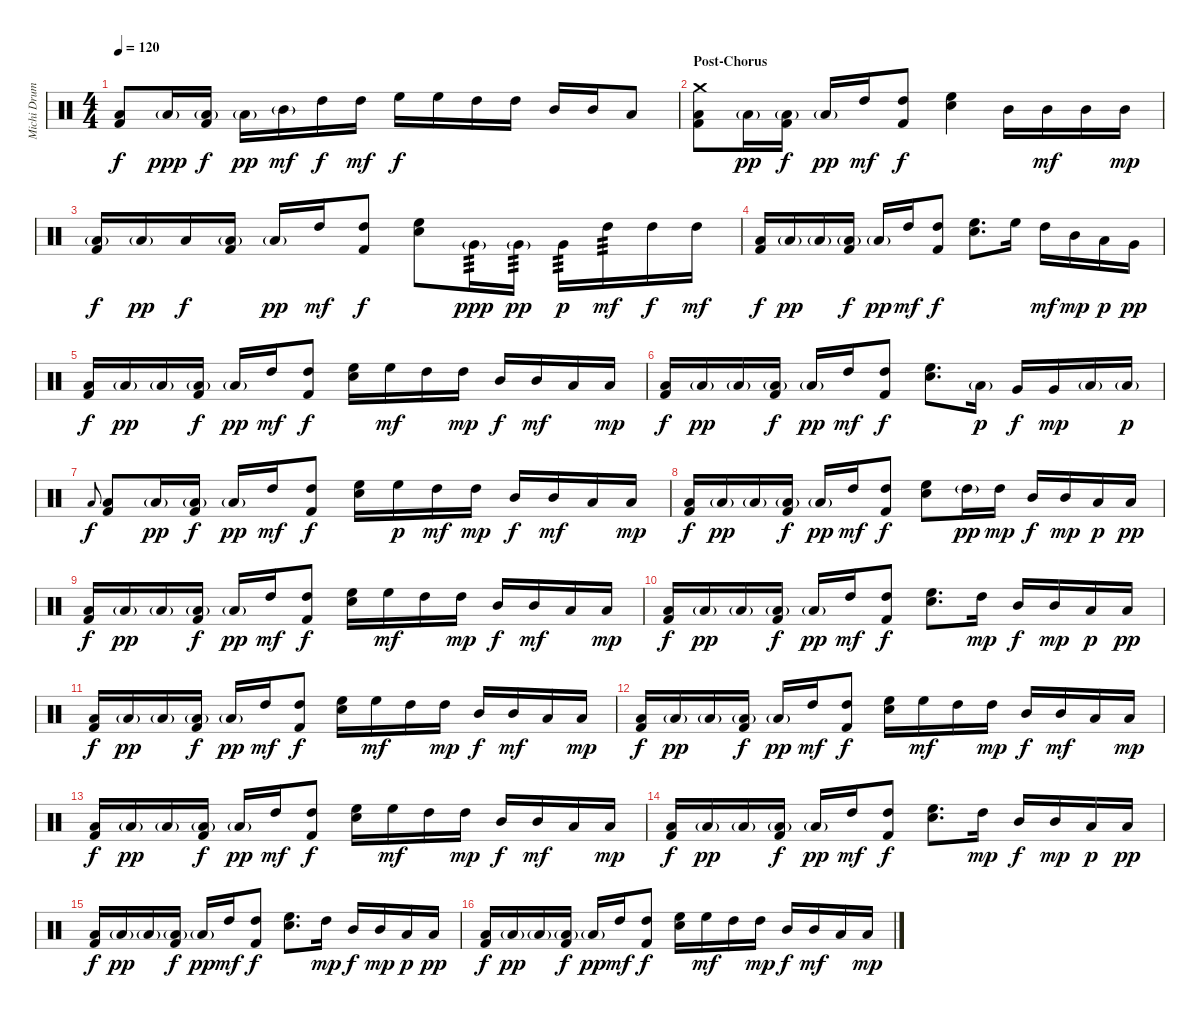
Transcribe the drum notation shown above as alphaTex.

\track ("Michi Drums" "Michi Drum") {instrument percussion}
\staff {score}
\articulation defaults
\ts (4 4)
\tempo 120
\clef neutral
\ks c
("Low Floor Tom (hit)" "Kick (hit) 2").8{dy f} "Low Floor Tom (hit)"{g}.16{dy ppp} ("Low Tom (hit)"{g} "Kick (hit) 2").16{dy f} "Low Tom (hit)"{g}.16{dy pp} "Mid Tom (hit)"{g}.16{dy mf} "High Tom (hit)".16{dy f} "High Tom (hit)".16{dy mf} "High Floor Tom (hit)".16{dy f} "High Floor Tom (hit)".16 "High Tom (hit)".16 "High Tom (hit)".16 "Mid Tom (hit)".16 "Mid Tom (hit)".16 "Low Tom (hit)".8 |
\section ("" "Post-Chorus")
("Crash medium (hit)" "Low Floor Tom (hit)" "Kick (hit) 2").8 "Low Floor Tom (hit)"{g}.16{dy pp} ("Low Tom (hit)"{g} "Kick (hit) 2").16{dy f} "Low Tom (hit)"{g}.16{dy pp} "High Tom (hit)".16{dy mf} ("High Tom (hit)" "Kick (hit) 2").8{dy f} ("High Floor Tom (hit)" "Electric Snare (hit)").4 "Mid Tom (hit)".16 "Mid Tom (hit)".16{dy mf} "Mid Tom (hit)".16 "Mid Tom (hit)".16{dy mp} |
("Low Floor Tom (hit)"{g} "Kick (hit) 2").16{dy f} "Low Floor Tom (hit)"{g}.16{dy pp} "Low Floor Tom (hit)".16{dy f} ("Low Tom (hit)"{g} "Kick (hit) 2").16 "Low Tom (hit)"{g}.16{dy pp} "High Tom (hit)".16{dy mf} ("High Tom (hit)" "Kick (hit) 2").8{dy f} ("High Floor Tom (hit)" "Electric Snare (hit)").8 "Very Low Tom (hit)"{g}.16{tp 3 dy ppp} "Very Low Tom (hit)"{g}.16{tp 3 dy pp} "Very Low Tom (hit)".16{tp 3 dy p} "High Tom (hit)".16{tp 3 dy mf} "High Tom (hit)".16{dy f} "High Tom (hit)".16{dy mf} |
("Low Floor Tom (hit)" "Kick (hit) 2").16{dy f} "Low Floor Tom (hit)"{g}.16{dy pp} "Low Floor Tom (hit)"{g}.16 ("Low Tom (hit)"{g} "Kick (hit) 2").16{dy f} "Low Tom (hit)"{g}.16{dy pp} "High Tom (hit)".16{dy mf} ("High Tom (hit)" "Kick (hit) 2").8{dy f} ("High Floor Tom (hit)" "Electric Snare (hit)").8{d} "High Floor Tom (hit)".16 "High Tom (hit)".16{dy mf} "Mid Tom (hit)".16{dy mp} "Low Tom (hit)".16{dy p} "Very Low Tom (hit)".16{dy pp} |
("Low Floor Tom (hit)" "Kick (hit) 2").16{dy f} "Low Floor Tom (hit)"{g}.16{dy pp} "Low Floor Tom (hit)"{g}.16 ("Low Tom (hit)"{g} "Kick (hit) 2").16{dy f} "Low Tom (hit)"{g}.16{dy pp} "High Tom (hit)".16{dy mf} ("High Tom (hit)" "Kick (hit) 2").8{dy f} ("High Floor Tom (hit)" "Electric Snare (hit)").16 "High Floor Tom (hit)".16{dy mf} "High Tom (hit)".16 "High Tom (hit)".16{dy mp} "Mid Tom (hit)".16{dy f} "Mid Tom (hit)".16{dy mf} "Low Tom (hit)".16 "Low Tom (hit)".16{dy mp} |
("Low Floor Tom (hit)" "Kick (hit) 2").16{dy f} "Low Floor Tom (hit)"{g}.16{dy pp} "Low Floor Tom (hit)"{g}.16 ("Low Tom (hit)"{g} "Kick (hit) 2").16{dy f} "Low Tom (hit)"{g}.16{dy pp} "High Tom (hit)".16{dy mf} ("High Tom (hit)" "Kick (hit) 2").8{dy f} ("High Floor Tom (hit)" "Electric Snare (hit)").8{d} "Low Tom (hit)"{g}.16{dy p} "Very Low Tom (hit)".16{dy f} "Very Low Tom (hit)".16{dy mp} "Low Floor Tom (hit)"{g}.16 "Low Floor Tom (hit)"{g}.16{dy p} |
"Low Floor Tom (hit)".8{gr onbeat dy f} ("Low Floor Tom (hit)" "Kick (hit) 2").8 "Low Floor Tom (hit)"{g}.16{dy pp} ("Low Tom (hit)"{g} "Kick (hit) 2").16{dy f} "Low Tom (hit)"{g}.16{dy pp} "High Tom (hit)".16{dy mf} ("High Tom (hit)" "Kick (hit) 2").8{dy f} ("High Floor Tom (hit)" "Electric Snare (hit)").16 "High Floor Tom (hit)".16{dy p} "High Tom (hit)".16{dy mf} "High Tom (hit)".16{dy mp} "Mid Tom (hit)".16{dy f} "Mid Tom (hit)".16{dy mf} "Low Tom (hit)".16 "Low Tom (hit)".16{dy mp} |
("Low Floor Tom (hit)" "Kick (hit) 2").16{dy f} "Low Floor Tom (hit)"{g}.16{dy pp} "Low Floor Tom (hit)"{g}.16 ("Low Tom (hit)"{g} "Kick (hit) 2").16{dy f} "Low Tom (hit)"{g}.16{dy pp} "High Tom (hit)".16{dy mf} ("High Tom (hit)" "Kick (hit) 2").8{dy f} ("High Floor Tom (hit)" "Electric Snare (hit)").8 "High Tom (hit)"{g}.16{dy pp} "High Tom (hit)".16{dy mp} "Mid Tom (hit)".16{dy f} "Mid Tom (hit)".16{dy mp} "Low Tom (hit)".16{dy p} "Low Tom (hit)".16{dy pp} |
("Low Floor Tom (hit)" "Kick (hit) 2").16{dy f} "Low Floor Tom (hit)"{g}.16{dy pp} "Low Floor Tom (hit)"{g}.16 ("Low Tom (hit)"{g} "Kick (hit) 2").16{dy f} "Low Tom (hit)"{g}.16{dy pp} "High Tom (hit)".16{dy mf} ("High Tom (hit)" "Kick (hit) 2").8{dy f} ("High Floor Tom (hit)" "Electric Snare (hit)").16 "High Floor Tom (hit)".16{dy mf} "High Tom (hit)".16 "High Tom (hit)".16{dy mp} "Mid Tom (hit)".16{dy f} "Mid Tom (hit)".16{dy mf} "Low Tom (hit)".16 "Low Tom (hit)".16{dy mp} |
("Low Floor Tom (hit)" "Kick (hit) 2").16{dy f} "Low Floor Tom (hit)"{g}.16{dy pp} "Low Floor Tom (hit)"{g}.16 ("Low Tom (hit)"{g} "Kick (hit) 2").16{dy f} "Low Tom (hit)"{g}.16{dy pp} "High Tom (hit)".16{dy mf} ("High Tom (hit)" "Kick (hit) 2").8{dy f} ("High Floor Tom (hit)" "Electric Snare (hit)").8{d} "High Tom (hit)".16{dy mp} "Mid Tom (hit)".16{dy f} "Mid Tom (hit)".16{dy mp} "Low Tom (hit)".16{dy p} "Low Tom (hit)".16{dy pp} |
("Low Floor Tom (hit)" "Kick (hit) 2").16{dy f} "Low Floor Tom (hit)"{g}.16{dy pp} "Low Floor Tom (hit)"{g}.16 ("Low Tom (hit)"{g} "Kick (hit) 2").16{dy f} "Low Tom (hit)"{g}.16{dy pp} "High Tom (hit)".16{dy mf} ("High Tom (hit)" "Kick (hit) 2").8{dy f} ("High Floor Tom (hit)" "Electric Snare (hit)").16 "High Floor Tom (hit)".16{dy mf} "High Tom (hit)".16 "High Tom (hit)".16{dy mp} "Mid Tom (hit)".16{dy f} "Mid Tom (hit)".16{dy mf} "Low Tom (hit)".16 "Low Tom (hit)".16{dy mp} |
("Low Floor Tom (hit)" "Kick (hit) 2").16{dy f} "Low Floor Tom (hit)"{g}.16{dy pp} "Low Floor Tom (hit)"{g}.16 ("Low Tom (hit)"{g} "Kick (hit) 2").16{dy f} "Low Tom (hit)"{g}.16{dy pp} "High Tom (hit)".16{dy mf} ("High Tom (hit)" "Kick (hit) 2").8{dy f} ("High Floor Tom (hit)" "Electric Snare (hit)").16 "High Floor Tom (hit)".16{dy mf} "High Tom (hit)".16 "High Tom (hit)".16{dy mp} "Mid Tom (hit)".16{dy f} "Mid Tom (hit)".16{dy mf} "Low Tom (hit)".16 "Low Tom (hit)".16{dy mp} |
("Low Floor Tom (hit)" "Kick (hit) 2").16{dy f} "Low Floor Tom (hit)"{g}.16{dy pp} "Low Floor Tom (hit)"{g}.16 ("Low Tom (hit)"{g} "Kick (hit) 2").16{dy f} "Low Tom (hit)"{g}.16{dy pp} "High Tom (hit)".16{dy mf} ("High Tom (hit)" "Kick (hit) 2").8{dy f} ("High Floor Tom (hit)" "Electric Snare (hit)").16 "High Floor Tom (hit)".16{dy mf} "High Tom (hit)".16 "High Tom (hit)".16{dy mp} "Mid Tom (hit)".16{dy f} "Mid Tom (hit)".16{dy mf} "Low Tom (hit)".16 "Low Tom (hit)".16{dy mp} |
("Low Floor Tom (hit)" "Kick (hit) 2").16{dy f} "Low Floor Tom (hit)"{g}.16{dy pp} "Low Floor Tom (hit)"{g}.16 ("Low Tom (hit)"{g} "Kick (hit) 2").16{dy f} "Low Tom (hit)"{g}.16{dy pp} "High Tom (hit)".16{dy mf} ("High Tom (hit)" "Kick (hit) 2").8{dy f} ("High Floor Tom (hit)" "Electric Snare (hit)").8{d} "High Tom (hit)".16{dy mp} "Mid Tom (hit)".16{dy f} "Mid Tom (hit)".16{dy mp} "Low Tom (hit)".16{dy p} "Low Tom (hit)".16{dy pp} |
("Low Floor Tom (hit)" "Kick (hit) 2").16{dy f} "Low Floor Tom (hit)"{g}.16{dy pp} "Low Floor Tom (hit)"{g}.16 ("Low Tom (hit)"{g} "Kick (hit) 2").16{dy f} "Low Tom (hit)"{g}.16{dy pp} "High Tom (hit)".16{dy mf} ("High Tom (hit)" "Kick (hit) 2").8{dy f} ("High Floor Tom (hit)" "Electric Snare (hit)").8{d} "High Tom (hit)".16{dy mp} "Mid Tom (hit)".16{dy f} "Mid Tom (hit)".16{dy mp} "Low Tom (hit)".16{dy p} "Low Tom (hit)".16{dy pp} |
("Low Floor Tom (hit)" "Kick (hit) 2").16{dy f} "Low Floor Tom (hit)"{g}.16{dy pp} "Low Floor Tom (hit)"{g}.16 ("Low Tom (hit)"{g} "Kick (hit) 2").16{dy f} "Low Tom (hit)"{g}.16{dy pp} "High Tom (hit)".16{dy mf} ("High Tom (hit)" "Kick (hit) 2").8{dy f} ("High Floor Tom (hit)" "Electric Snare (hit)").16 "High Floor Tom (hit)".16{dy mf} "High Tom (hit)".16 "High Tom (hit)".16{dy mp} "Mid Tom (hit)".16{dy f} "Mid Tom (hit)".16{dy mf} "Low Tom (hit)".16 "Low Tom (hit)".16{dy mp}
